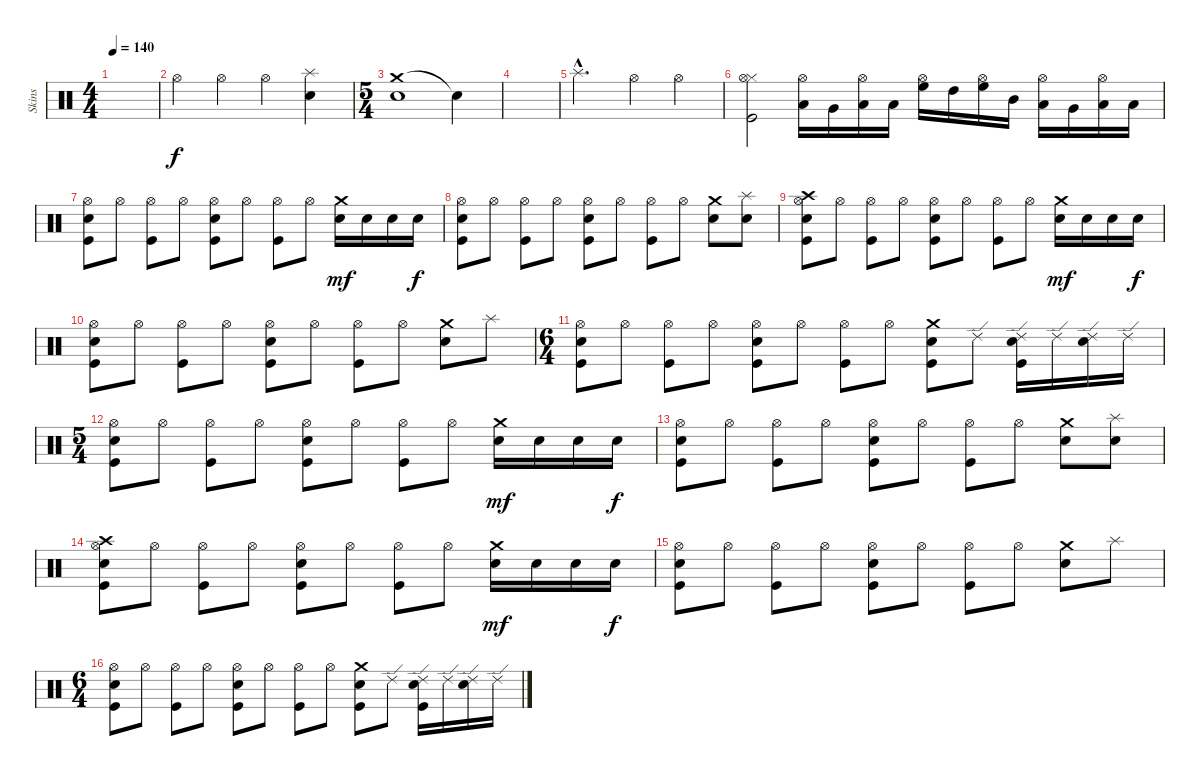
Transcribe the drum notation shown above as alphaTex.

\track ("Skins" "Skins") {instrument percussion}
\staff {score}
\articulation defaults
\ts (4 4)
\tempo 140
\clef neutral
\ks c
|
"Hi-Hat (open)".4{dy f} "Hi-Hat (open)".4 "Hi-Hat (open)".4 ("Splash (hit)" "Snare (hit) 2").4 |
\ts (5 4)
("Crash medium (hit)" "Snare (hit) 2").1 "Snare (hit)"{t}.4 |
|
"Splash (hit)"{hac}.2{d} "Hi-Hat (open)".4 "Hi-Hat (open)".4 |
("Hi-Hat (closed)" "Hi-Hat (open)" "Kick (hit)").2 ("Low Tom (hit)" "Hi-Hat (open)").16 "Very Low Tom (hit)".16 ("Low Floor Tom (hit)" "Hi-Hat (open)").16 "Low Floor Tom (hit)".16 ("High Floor Tom (hit)" "Hi-Hat (open)").16 "High Tom (hit)".16 ("High Floor Tom (hit)" "Hi-Hat (open)").16 "Mid Tom (hit)".16 ("Low Tom (hit)" "Hi-Hat (open)").16 "Very Low Tom (hit)".16 ("Low Floor Tom (hit)" "Hi-Hat (open)").16 "Low Floor Tom (hit)".16 |
("Hi-Hat (open)" "Snare (hit) 2" "Kick (hit)").8 "Hi-Hat (open)".8 ("Hi-Hat (open)" "Kick (hit)").8 "Hi-Hat (open)".8 ("Hi-Hat (open)" "Snare (hit) 2" "Kick (hit)").8 "Hi-Hat (open)".8 ("Hi-Hat (open)" "Kick (hit)").8 "Hi-Hat (open)".8 ("Crash medium (hit)" "Electric Snare (hit)").16{dy mf} "Electric Snare (hit)".16 "Electric Snare (hit)".16 "Electric Snare (hit)".16{dy f} |
("Hi-Hat (open)" "Snare (hit) 2" "Kick (hit)").8 "Hi-Hat (open)".8 ("Hi-Hat (open)" "Kick (hit)").8 "Hi-Hat (open)".8 ("Hi-Hat (open)" "Snare (hit) 2" "Kick (hit)").8 "Hi-Hat (open)".8 ("Hi-Hat (open)" "Kick (hit)").8 "Hi-Hat (open)".8 ("Crash medium (hit)" "Electric Snare (hit)").8 ("Splash (hit)" "Electric Snare (hit)").8 |
("Crash high (hit)" "Hi-Hat (open)" "Snare (hit) 2" "Kick (hit)").8 "Hi-Hat (open)".8 ("Hi-Hat (open)" "Kick (hit)").8 "Hi-Hat (open)".8 ("Hi-Hat (open)" "Snare (hit) 2" "Kick (hit)").8 "Hi-Hat (open)".8 ("Hi-Hat (open)" "Kick (hit)").8 "Hi-Hat (open)".8 ("Crash medium (hit)" "Electric Snare (hit)").16{dy mf} "Electric Snare (hit)".16 "Electric Snare (hit)".16 "Electric Snare (hit)".16{dy f} |
("Hi-Hat (open)" "Snare (hit) 2" "Kick (hit)").8 "Hi-Hat (open)".8 ("Hi-Hat (open)" "Kick (hit)").8 "Hi-Hat (open)".8 ("Hi-Hat (open)" "Snare (hit) 2" "Kick (hit)").8 "Hi-Hat (open)".8 ("Hi-Hat (open)" "Kick (hit)").8 "Hi-Hat (open)".8 ("Crash medium (hit)" "Electric Snare (hit)").8 "Splash (hit)".8 |
\ts (6 4)
("Hi-Hat (open)" "Snare (hit) 2" "Kick (hit)").8 "Hi-Hat (open)".8 ("Hi-Hat (open)" "Kick (hit)").8 "Hi-Hat (open)".8 ("Hi-Hat (open)" "Snare (hit) 2" "Kick (hit)").8 "Hi-Hat (open)".8 ("Hi-Hat (open)" "Kick (hit)").8 "Hi-Hat (open)".8 ("Crash medium (hit)" "Electric Snare (hit)" "Kick (hit)").8 "Ride (edge) 2".8 ("Ride (edge) 2" "Snare (hit) 2" "Kick (hit)").16 "Ride (edge) 2".16 ("Ride (edge) 2" "Snare (hit) 2").16 "Ride (edge) 2".16 |
\ts (5 4)
("Hi-Hat (open)" "Snare (hit) 2" "Kick (hit)").8 "Hi-Hat (open)".8 ("Hi-Hat (open)" "Kick (hit)").8 "Hi-Hat (open)".8 ("Hi-Hat (open)" "Snare (hit) 2" "Kick (hit)").8 "Hi-Hat (open)".8 ("Hi-Hat (open)" "Kick (hit)").8 "Hi-Hat (open)".8 ("Crash medium (hit)" "Electric Snare (hit)").16{dy mf} "Electric Snare (hit)".16 "Electric Snare (hit)".16 "Electric Snare (hit)".16{dy f} |
("Hi-Hat (open)" "Snare (hit) 2" "Kick (hit)").8 "Hi-Hat (open)".8 ("Hi-Hat (open)" "Kick (hit)").8 "Hi-Hat (open)".8 ("Hi-Hat (open)" "Snare (hit) 2" "Kick (hit)").8 "Hi-Hat (open)".8 ("Hi-Hat (open)" "Kick (hit)").8 "Hi-Hat (open)".8 ("Crash medium (hit)" "Electric Snare (hit)").8 ("Splash (hit)" "Electric Snare (hit)").8 |
("Crash high (hit)" "Hi-Hat (open)" "Snare (hit) 2" "Kick (hit)").8 "Hi-Hat (open)".8 ("Hi-Hat (open)" "Kick (hit)").8 "Hi-Hat (open)".8 ("Hi-Hat (open)" "Snare (hit) 2" "Kick (hit)").8 "Hi-Hat (open)".8 ("Hi-Hat (open)" "Kick (hit)").8 "Hi-Hat (open)".8 ("Crash medium (hit)" "Electric Snare (hit)").16{dy mf} "Electric Snare (hit)".16 "Electric Snare (hit)".16 "Electric Snare (hit)".16{dy f} |
("Hi-Hat (open)" "Snare (hit) 2" "Kick (hit)").8 "Hi-Hat (open)".8 ("Hi-Hat (open)" "Kick (hit)").8 "Hi-Hat (open)".8 ("Hi-Hat (open)" "Snare (hit) 2" "Kick (hit)").8 "Hi-Hat (open)".8 ("Hi-Hat (open)" "Kick (hit)").8 "Hi-Hat (open)".8 ("Crash medium (hit)" "Electric Snare (hit)").8 "Splash (hit)".8 |
\ts (6 4)
("Hi-Hat (open)" "Snare (hit) 2" "Kick (hit)").8 "Hi-Hat (open)".8 ("Hi-Hat (open)" "Kick (hit)").8 "Hi-Hat (open)".8 ("Hi-Hat (open)" "Snare (hit) 2" "Kick (hit)").8 "Hi-Hat (open)".8 ("Hi-Hat (open)" "Kick (hit)").8 "Hi-Hat (open)".8 ("Crash medium (hit)" "Electric Snare (hit)" "Kick (hit)").8 "Ride (edge) 2".8 ("Ride (edge) 2" "Snare (hit) 2" "Kick (hit)").16 "Ride (edge) 2".16 ("Ride (edge) 2" "Snare (hit) 2").16 "Ride (edge) 2".16
